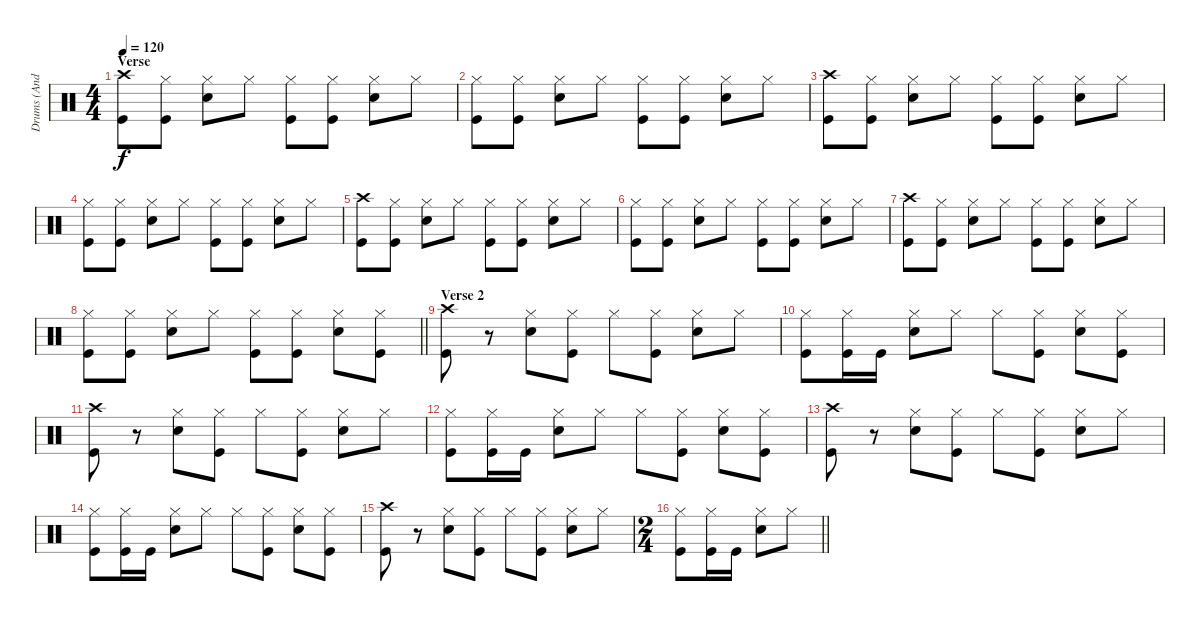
\track ("Drums (Andy Parker)" "Drums (And") {instrument percussion}
\staff {score}
\articulation defaults
\ts (4 4)
\section ("" "Verse")
\tempo 120
\clef neutral
\ks c
("Crash high (hit)" "Kick (hit)").8{dy f} ("Hi-Hat (closed)" "Kick (hit)").8 ("Hi-Hat (closed)" "Electric Snare (hit)").8 "Hi-Hat (closed)".8 ("Hi-Hat (closed)" "Kick (hit)").8 ("Hi-Hat (closed)" "Kick (hit)").8 ("Hi-Hat (closed)" "Electric Snare (hit)").8 "Hi-Hat (closed)".8 |
("Hi-Hat (closed)" "Kick (hit)").8 ("Hi-Hat (closed)" "Kick (hit)").8 ("Hi-Hat (closed)" "Electric Snare (hit)").8 "Hi-Hat (closed)".8 ("Hi-Hat (closed)" "Kick (hit)").8 ("Hi-Hat (closed)" "Kick (hit)").8 ("Hi-Hat (closed)" "Electric Snare (hit)").8 "Hi-Hat (closed)".8 |
("Crash high (hit)" "Kick (hit)").8 ("Hi-Hat (closed)" "Kick (hit)").8 ("Hi-Hat (closed)" "Electric Snare (hit)").8 "Hi-Hat (closed)".8 ("Hi-Hat (closed)" "Kick (hit)").8 ("Hi-Hat (closed)" "Kick (hit)").8 ("Hi-Hat (closed)" "Electric Snare (hit)").8 "Hi-Hat (closed)".8 |
("Hi-Hat (closed)" "Kick (hit)").8 ("Hi-Hat (closed)" "Kick (hit)").8 ("Hi-Hat (closed)" "Electric Snare (hit)").8 "Hi-Hat (closed)".8 ("Hi-Hat (closed)" "Kick (hit)").8 ("Hi-Hat (closed)" "Kick (hit)").8 ("Hi-Hat (closed)" "Electric Snare (hit)").8 "Hi-Hat (closed)".8 |
("Crash high (hit)" "Kick (hit)").8 ("Hi-Hat (closed)" "Kick (hit)").8 ("Hi-Hat (closed)" "Electric Snare (hit)").8 "Hi-Hat (closed)".8 ("Hi-Hat (closed)" "Kick (hit)").8 ("Hi-Hat (closed)" "Kick (hit)").8 ("Hi-Hat (closed)" "Electric Snare (hit)").8 "Hi-Hat (closed)".8 |
("Hi-Hat (closed)" "Kick (hit)").8 ("Hi-Hat (closed)" "Kick (hit)").8 ("Hi-Hat (closed)" "Electric Snare (hit)").8 "Hi-Hat (closed)".8 ("Hi-Hat (closed)" "Kick (hit)").8 ("Hi-Hat (closed)" "Kick (hit)").8 ("Hi-Hat (closed)" "Electric Snare (hit)").8 "Hi-Hat (closed)".8 |
("Crash high (hit)" "Kick (hit)").8 ("Hi-Hat (closed)" "Kick (hit)").8 ("Hi-Hat (closed)" "Electric Snare (hit)").8 "Hi-Hat (closed)".8 ("Hi-Hat (closed)" "Kick (hit)").8 ("Hi-Hat (closed)" "Kick (hit)").8 ("Hi-Hat (closed)" "Electric Snare (hit)").8 "Hi-Hat (closed)".8 |
\barLineRight lightlight
("Hi-Hat (closed)" "Kick (hit)").8 ("Hi-Hat (closed)" "Kick (hit)").8 ("Hi-Hat (closed)" "Electric Snare (hit)").8 "Hi-Hat (closed)".8 ("Hi-Hat (closed)" "Kick (hit)").8 ("Hi-Hat (closed)" "Kick (hit)").8 ("Hi-Hat (closed)" "Electric Snare (hit)").8 ("Hi-Hat (closed)" "Kick (hit)").8 |
\section ("" "Verse 2")
("Crash high (hit)" "Kick (hit)").8 r.8 ("Hi-Hat (closed)" "Electric Snare (hit)").8 ("Hi-Hat (closed)" "Kick (hit)").8 "Hi-Hat (closed)".8 ("Hi-Hat (closed)" "Kick (hit)").8 ("Hi-Hat (closed)" "Electric Snare (hit)").8 "Hi-Hat (closed)".8 |
("Hi-Hat (closed)" "Kick (hit)").8 ("Hi-Hat (closed)" "Kick (hit)").16 "Kick (hit)".16 ("Hi-Hat (closed)" "Electric Snare (hit)").8 "Hi-Hat (closed)".8 "Hi-Hat (closed)".8 ("Hi-Hat (closed)" "Kick (hit)").8 ("Hi-Hat (closed)" "Electric Snare (hit)").8 ("Hi-Hat (closed)" "Kick (hit)").8 |
("Crash high (hit)" "Kick (hit)").8 r.8 ("Hi-Hat (closed)" "Electric Snare (hit)").8 ("Hi-Hat (closed)" "Kick (hit)").8 "Hi-Hat (closed)".8 ("Hi-Hat (closed)" "Kick (hit)").8 ("Hi-Hat (closed)" "Electric Snare (hit)").8 "Hi-Hat (closed)".8 |
("Hi-Hat (closed)" "Kick (hit)").8 ("Hi-Hat (closed)" "Kick (hit)").16 "Kick (hit)".16 ("Hi-Hat (closed)" "Electric Snare (hit)").8 "Hi-Hat (closed)".8 "Hi-Hat (closed)".8 ("Hi-Hat (closed)" "Kick (hit)").8 ("Hi-Hat (closed)" "Electric Snare (hit)").8 ("Hi-Hat (closed)" "Kick (hit)").8 |
("Crash high (hit)" "Kick (hit)").8 r.8 ("Hi-Hat (closed)" "Electric Snare (hit)").8 ("Hi-Hat (closed)" "Kick (hit)").8 "Hi-Hat (closed)".8 ("Hi-Hat (closed)" "Kick (hit)").8 ("Hi-Hat (closed)" "Electric Snare (hit)").8 "Hi-Hat (closed)".8 |
("Hi-Hat (closed)" "Kick (hit)").8 ("Hi-Hat (closed)" "Kick (hit)").16 "Kick (hit)".16 ("Hi-Hat (closed)" "Electric Snare (hit)").8 "Hi-Hat (closed)".8 "Hi-Hat (closed)".8 ("Hi-Hat (closed)" "Kick (hit)").8 ("Hi-Hat (closed)" "Electric Snare (hit)").8 ("Hi-Hat (closed)" "Kick (hit)").8 |
("Crash high (hit)" "Kick (hit)").8 r.8 ("Hi-Hat (closed)" "Electric Snare (hit)").8 ("Hi-Hat (closed)" "Kick (hit)").8 "Hi-Hat (closed)".8 ("Hi-Hat (closed)" "Kick (hit)").8 ("Hi-Hat (closed)" "Electric Snare (hit)").8 "Hi-Hat (closed)".8 |
\ts (2 4)
\barLineRight lightlight
("Hi-Hat (closed)" "Kick (hit)").8 ("Hi-Hat (closed)" "Kick (hit)").16 "Kick (hit)".16 ("Hi-Hat (closed)" "Electric Snare (hit)").8 "Hi-Hat (closed)".8
